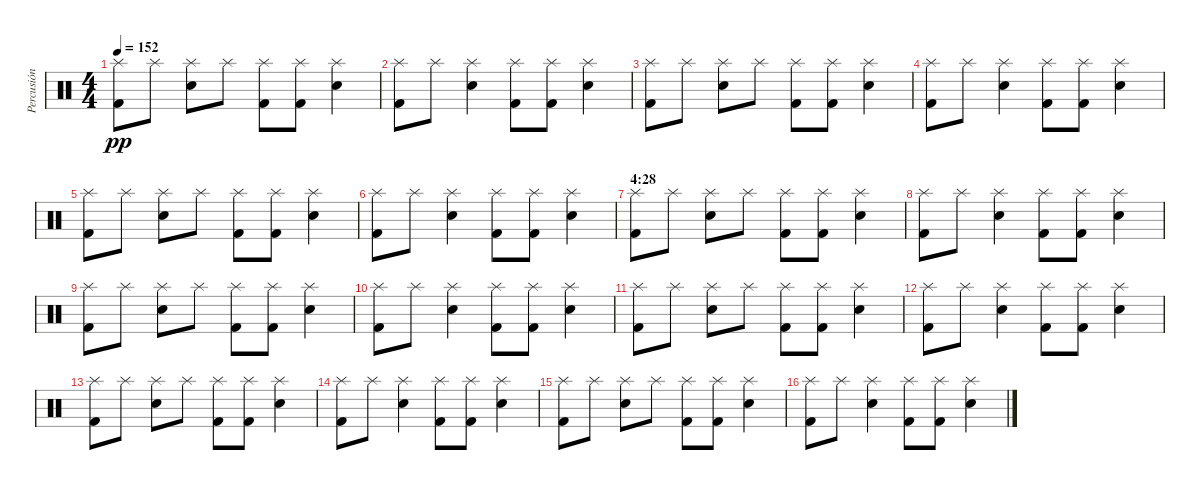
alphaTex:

\track ("Percusión" "Percusión") {instrument percussion}
\staff {score}
\articulation defaults
\ts (4 4)
\tempo 152
\clef neutral
\ks c
("Kick (hit) 2" "Splash (hit)").8{dy pp} "Splash (hit)".8 ("Snare (hit) 2" "Splash (hit)").8 "Splash (hit)".8 ("Kick (hit) 2" "Splash (hit)").8 ("Kick (hit) 2" "Splash (hit)").8 ("Snare (hit) 2" "Splash (hit)").4 |
("Kick (hit) 2" "Splash (hit)").8 "Splash (hit)".8 ("Snare (hit) 2" "Splash (hit)").4 ("Kick (hit) 2" "Splash (hit)").8 ("Kick (hit) 2" "Splash (hit)").8 ("Snare (hit) 2" "Splash (hit)").4 |
("Kick (hit) 2" "Splash (hit)").8 "Splash (hit)".8 ("Snare (hit) 2" "Splash (hit)").8 "Splash (hit)".8 ("Kick (hit) 2" "Splash (hit)").8 ("Kick (hit) 2" "Splash (hit)").8 ("Snare (hit) 2" "Splash (hit)").4 |
("Kick (hit) 2" "Splash (hit)").8 "Splash (hit)".8 ("Snare (hit) 2" "Splash (hit)").4 ("Kick (hit) 2" "Splash (hit)").8 ("Kick (hit) 2" "Splash (hit)").8 ("Snare (hit) 2" "Splash (hit)").4 |
("Kick (hit) 2" "Splash (hit)").8 "Splash (hit)".8 ("Snare (hit) 2" "Splash (hit)").8 "Splash (hit)".8 ("Kick (hit) 2" "Splash (hit)").8 ("Kick (hit) 2" "Splash (hit)").8 ("Snare (hit) 2" "Splash (hit)").4 |
("Kick (hit) 2" "Splash (hit)").8 "Splash (hit)".8 ("Snare (hit) 2" "Splash (hit)").4 ("Kick (hit) 2" "Splash (hit)").8 ("Kick (hit) 2" "Splash (hit)").8 ("Snare (hit) 2" "Splash (hit)").4 |
\section ("" "4:28")
("Kick (hit) 2" "Splash (hit)").8 "Splash (hit)".8 ("Snare (hit) 2" "Splash (hit)").8 "Splash (hit)".8 ("Kick (hit) 2" "Splash (hit)").8 ("Kick (hit) 2" "Splash (hit)").8 ("Snare (hit) 2" "Splash (hit)").4 |
("Kick (hit) 2" "Splash (hit)").8 "Splash (hit)".8 ("Snare (hit) 2" "Splash (hit)").4 ("Kick (hit) 2" "Splash (hit)").8 ("Kick (hit) 2" "Splash (hit)").8 ("Snare (hit) 2" "Splash (hit)").4 |
("Kick (hit) 2" "Splash (hit)").8 "Splash (hit)".8 ("Snare (hit) 2" "Splash (hit)").8 "Splash (hit)".8 ("Kick (hit) 2" "Splash (hit)").8 ("Kick (hit) 2" "Splash (hit)").8 ("Snare (hit) 2" "Splash (hit)").4 |
("Kick (hit) 2" "Splash (hit)").8 "Splash (hit)".8 ("Snare (hit) 2" "Splash (hit)").4 ("Kick (hit) 2" "Splash (hit)").8 ("Kick (hit) 2" "Splash (hit)").8 ("Snare (hit) 2" "Splash (hit)").4 |
("Kick (hit) 2" "Splash (hit)").8 "Splash (hit)".8 ("Snare (hit) 2" "Splash (hit)").8 "Splash (hit)".8 ("Kick (hit) 2" "Splash (hit)").8 ("Kick (hit) 2" "Splash (hit)").8 ("Snare (hit) 2" "Splash (hit)").4 |
("Kick (hit) 2" "Splash (hit)").8{volume 9} "Splash (hit)".8 ("Snare (hit) 2" "Splash (hit)").4 ("Kick (hit) 2" "Splash (hit)").8 ("Kick (hit) 2" "Splash (hit)").8 ("Snare (hit) 2" "Splash (hit)").4 |
("Kick (hit) 2" "Splash (hit)").8 "Splash (hit)".8 ("Snare (hit) 2" "Splash (hit)").8 "Splash (hit)".8 ("Kick (hit) 2" "Splash (hit)").8 ("Kick (hit) 2" "Splash (hit)").8 ("Snare (hit) 2" "Splash (hit)").4 |
("Kick (hit) 2" "Splash (hit)").8 "Splash (hit)".8 ("Snare (hit) 2" "Splash (hit)").4 ("Kick (hit) 2" "Splash (hit)").8 ("Kick (hit) 2" "Splash (hit)").8 ("Snare (hit) 2" "Splash (hit)").4 |
("Kick (hit) 2" "Splash (hit)").8 "Splash (hit)".8 ("Snare (hit) 2" "Splash (hit)").8 "Splash (hit)".8 ("Kick (hit) 2" "Splash (hit)").8 ("Kick (hit) 2" "Splash (hit)").8 ("Snare (hit) 2" "Splash (hit)").4 |
("Kick (hit) 2" "Splash (hit)").8{volume 3} "Splash (hit)".8 ("Snare (hit) 2" "Splash (hit)").4 ("Kick (hit) 2" "Splash (hit)").8 ("Kick (hit) 2" "Splash (hit)").8 ("Snare (hit) 2" "Splash (hit)").4
